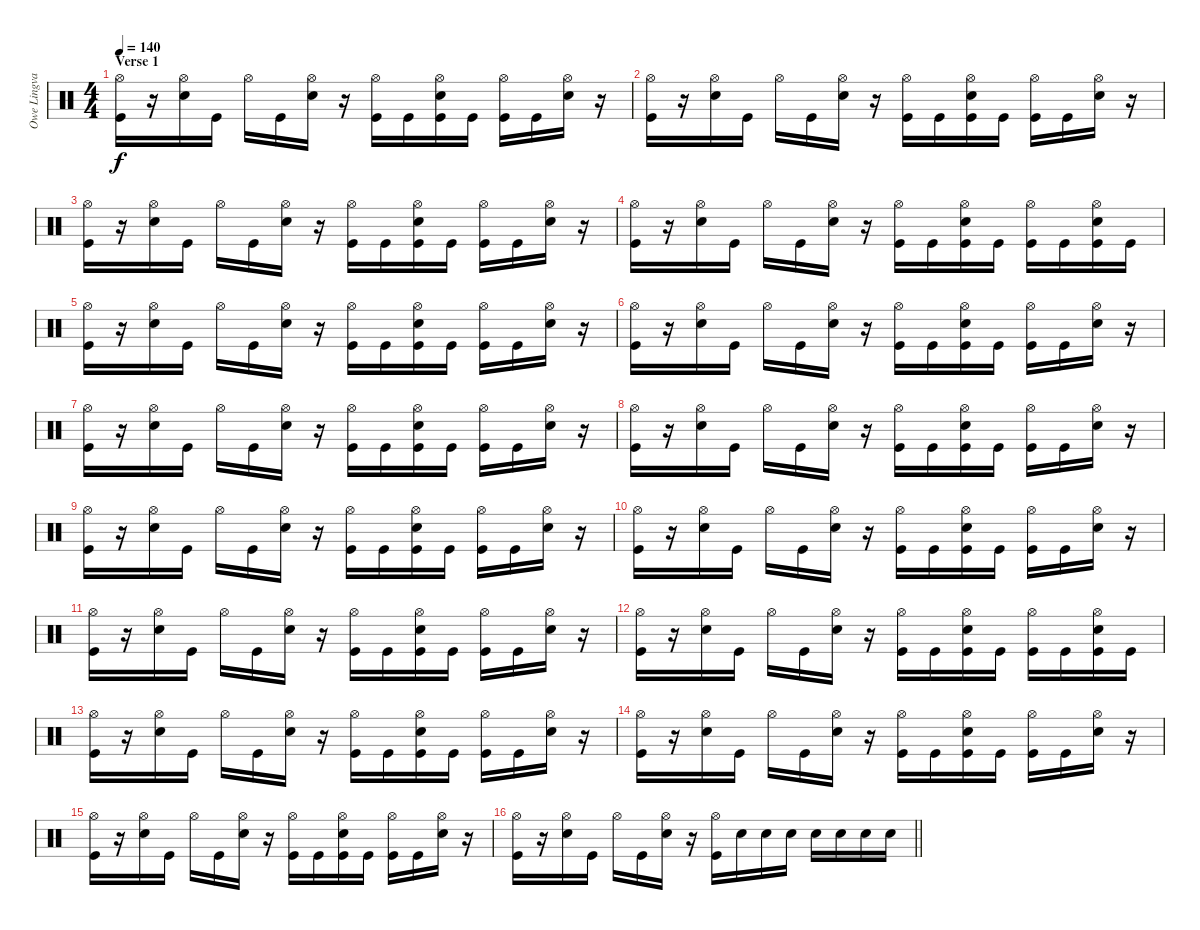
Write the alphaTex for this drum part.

\track ("Owe Lingvall" "Owe Lingva") {instrument percussion}
\staff {score}
\articulation defaults
\ts (4 4)
\section ("" "Verse 1")
\tempo 140
\clef neutral
\ks c
("Hi-Hat (open)" "Kick (hit)").16{dy f} r.16 ("Hi-Hat (open)" "Snare (hit) 2").16 "Kick (hit)".16 "Hi-Hat (open)".16 "Kick (hit)".16 ("Hi-Hat (open)" "Snare (hit) 2").16 r.16 ("Hi-Hat (open)" "Kick (hit)").16 "Kick (hit)".16 ("Hi-Hat (open)" "Snare (hit) 2" "Kick (hit)").16 "Kick (hit)".16 ("Kick (hit)" "Hi-Hat (open)").16 "Kick (hit)".16 ("Snare (hit) 2" "Hi-Hat (open)").16 r.16 |
("Hi-Hat (open)" "Kick (hit)").16 r.16 ("Hi-Hat (open)" "Snare (hit) 2").16 "Kick (hit)".16 "Hi-Hat (open)".16 "Kick (hit)".16 ("Hi-Hat (open)" "Snare (hit) 2").16 r.16 ("Hi-Hat (open)" "Kick (hit)").16 "Kick (hit)".16 ("Hi-Hat (open)" "Snare (hit) 2" "Kick (hit)").16 "Kick (hit)".16 ("Kick (hit)" "Hi-Hat (open)").16 "Kick (hit)".16 ("Snare (hit) 2" "Hi-Hat (open)").16 r.16 |
("Hi-Hat (open)" "Kick (hit)").16 r.16 ("Hi-Hat (open)" "Snare (hit) 2").16 "Kick (hit)".16 "Hi-Hat (open)".16 "Kick (hit)".16 ("Hi-Hat (open)" "Snare (hit) 2").16 r.16 ("Hi-Hat (open)" "Kick (hit)").16 "Kick (hit)".16 ("Hi-Hat (open)" "Snare (hit) 2" "Kick (hit)").16 "Kick (hit)".16 ("Kick (hit)" "Hi-Hat (open)").16 "Kick (hit)".16 ("Snare (hit) 2" "Hi-Hat (open)").16 r.16 |
("Hi-Hat (open)" "Kick (hit)").16 r.16 ("Hi-Hat (open)" "Snare (hit) 2").16 "Kick (hit)".16 "Hi-Hat (open)".16 "Kick (hit)".16 ("Hi-Hat (open)" "Snare (hit) 2").16 r.16 ("Hi-Hat (open)" "Kick (hit)").16 "Kick (hit)".16 ("Hi-Hat (open)" "Snare (hit) 2" "Kick (hit)").16 "Kick (hit)".16 ("Kick (hit)" "Hi-Hat (open)").16 "Kick (hit)".16 ("Snare (hit) 2" "Kick (hit)" "Hi-Hat (open)").16 "Kick (hit)".16 |
("Hi-Hat (open)" "Kick (hit)").16 r.16 ("Hi-Hat (open)" "Snare (hit) 2").16 "Kick (hit)".16 "Hi-Hat (open)".16 "Kick (hit)".16 ("Hi-Hat (open)" "Snare (hit) 2").16 r.16 ("Hi-Hat (open)" "Kick (hit)").16 "Kick (hit)".16 ("Hi-Hat (open)" "Snare (hit) 2" "Kick (hit)").16 "Kick (hit)".16 ("Kick (hit)" "Hi-Hat (open)").16 "Kick (hit)".16 ("Snare (hit) 2" "Hi-Hat (open)").16 r.16 |
("Hi-Hat (open)" "Kick (hit)").16 r.16 ("Hi-Hat (open)" "Snare (hit) 2").16 "Kick (hit)".16 "Hi-Hat (open)".16 "Kick (hit)".16 ("Hi-Hat (open)" "Snare (hit) 2").16 r.16 ("Hi-Hat (open)" "Kick (hit)").16 "Kick (hit)".16 ("Hi-Hat (open)" "Snare (hit) 2" "Kick (hit)").16 "Kick (hit)".16 ("Kick (hit)" "Hi-Hat (open)").16 "Kick (hit)".16 ("Snare (hit) 2" "Hi-Hat (open)").16 r.16 |
("Hi-Hat (open)" "Kick (hit)").16 r.16 ("Hi-Hat (open)" "Snare (hit) 2").16 "Kick (hit)".16 "Hi-Hat (open)".16 "Kick (hit)".16 ("Hi-Hat (open)" "Snare (hit) 2").16 r.16 ("Hi-Hat (open)" "Kick (hit)").16 "Kick (hit)".16 ("Hi-Hat (open)" "Snare (hit) 2" "Kick (hit)").16 "Kick (hit)".16 ("Kick (hit)" "Hi-Hat (open)").16 "Kick (hit)".16 ("Snare (hit) 2" "Hi-Hat (open)").16 r.16 |
("Hi-Hat (open)" "Kick (hit)").16 r.16 ("Hi-Hat (open)" "Snare (hit) 2").16 "Kick (hit)".16 "Hi-Hat (open)".16 "Kick (hit)".16 ("Hi-Hat (open)" "Snare (hit) 2").16 r.16 ("Hi-Hat (open)" "Kick (hit)").16 "Kick (hit)".16 ("Hi-Hat (open)" "Snare (hit) 2" "Kick (hit)").16 "Kick (hit)".16 ("Kick (hit)" "Hi-Hat (open)").16 "Kick (hit)".16 ("Snare (hit) 2" "Hi-Hat (open)").16 r.16 |
("Hi-Hat (open)" "Kick (hit)").16 r.16 ("Hi-Hat (open)" "Snare (hit) 2").16 "Kick (hit)".16 "Hi-Hat (open)".16 "Kick (hit)".16 ("Hi-Hat (open)" "Snare (hit) 2").16 r.16 ("Hi-Hat (open)" "Kick (hit)").16 "Kick (hit)".16 ("Hi-Hat (open)" "Snare (hit) 2" "Kick (hit)").16 "Kick (hit)".16 ("Kick (hit)" "Hi-Hat (open)").16 "Kick (hit)".16 ("Snare (hit) 2" "Hi-Hat (open)").16 r.16 |
("Hi-Hat (open)" "Kick (hit)").16 r.16 ("Hi-Hat (open)" "Snare (hit) 2").16 "Kick (hit)".16 "Hi-Hat (open)".16 "Kick (hit)".16 ("Hi-Hat (open)" "Snare (hit) 2").16 r.16 ("Hi-Hat (open)" "Kick (hit)").16 "Kick (hit)".16 ("Hi-Hat (open)" "Snare (hit) 2" "Kick (hit)").16 "Kick (hit)".16 ("Kick (hit)" "Hi-Hat (open)").16 "Kick (hit)".16 ("Snare (hit) 2" "Hi-Hat (open)").16 r.16 |
("Hi-Hat (open)" "Kick (hit)").16 r.16 ("Hi-Hat (open)" "Snare (hit) 2").16 "Kick (hit)".16 "Hi-Hat (open)".16 "Kick (hit)".16 ("Hi-Hat (open)" "Snare (hit) 2").16 r.16 ("Hi-Hat (open)" "Kick (hit)").16 "Kick (hit)".16 ("Hi-Hat (open)" "Snare (hit) 2" "Kick (hit)").16 "Kick (hit)".16 ("Kick (hit)" "Hi-Hat (open)").16 "Kick (hit)".16 ("Snare (hit) 2" "Hi-Hat (open)").16 r.16 |
("Hi-Hat (open)" "Kick (hit)").16 r.16 ("Hi-Hat (open)" "Snare (hit) 2").16 "Kick (hit)".16 "Hi-Hat (open)".16 "Kick (hit)".16 ("Hi-Hat (open)" "Snare (hit) 2").16 r.16 ("Hi-Hat (open)" "Kick (hit)").16 "Kick (hit)".16 ("Hi-Hat (open)" "Snare (hit) 2" "Kick (hit)").16 "Kick (hit)".16 ("Kick (hit)" "Hi-Hat (open)").16 "Kick (hit)".16 ("Snare (hit) 2" "Kick (hit)" "Hi-Hat (open)").16 "Kick (hit)".16 |
("Hi-Hat (open)" "Kick (hit)").16 r.16 ("Hi-Hat (open)" "Snare (hit) 2").16 "Kick (hit)".16 "Hi-Hat (open)".16 "Kick (hit)".16 ("Hi-Hat (open)" "Snare (hit) 2").16 r.16 ("Hi-Hat (open)" "Kick (hit)").16 "Kick (hit)".16 ("Hi-Hat (open)" "Snare (hit) 2" "Kick (hit)").16 "Kick (hit)".16 ("Kick (hit)" "Hi-Hat (open)").16 "Kick (hit)".16 ("Snare (hit) 2" "Hi-Hat (open)").16 r.16 |
("Hi-Hat (open)" "Kick (hit)").16 r.16 ("Hi-Hat (open)" "Snare (hit) 2").16 "Kick (hit)".16 "Hi-Hat (open)".16 "Kick (hit)".16 ("Hi-Hat (open)" "Snare (hit) 2").16 r.16 ("Hi-Hat (open)" "Kick (hit)").16 "Kick (hit)".16 ("Hi-Hat (open)" "Snare (hit) 2" "Kick (hit)").16 "Kick (hit)".16 ("Kick (hit)" "Hi-Hat (open)").16 "Kick (hit)".16 ("Snare (hit) 2" "Hi-Hat (open)").16 r.16 |
("Hi-Hat (open)" "Kick (hit)").16 r.16 ("Hi-Hat (open)" "Snare (hit) 2").16 "Kick (hit)".16 "Hi-Hat (open)".16 "Kick (hit)".16 ("Hi-Hat (open)" "Snare (hit) 2").16 r.16 ("Hi-Hat (open)" "Kick (hit)").16 "Kick (hit)".16 ("Hi-Hat (open)" "Snare (hit) 2" "Kick (hit)").16 "Kick (hit)".16 ("Kick (hit)" "Hi-Hat (open)").16 "Kick (hit)".16 ("Snare (hit) 2" "Hi-Hat (open)").16 r.16 |
\barLineRight lightlight
("Hi-Hat (open)" "Kick (hit)").16 r.16 ("Hi-Hat (open)" "Snare (hit) 2").16 "Kick (hit)".16 "Hi-Hat (open)".16 "Kick (hit)".16 ("Hi-Hat (open)" "Snare (hit) 2").16 r.16 ("Hi-Hat (open)" "Kick (hit)").16 "Snare (hit) 2".16 "Snare (hit) 2".16 "Snare (hit) 2".16 "Snare (hit) 2".16 "Snare (hit) 2".16 "Snare (hit) 2".16 "Snare (hit) 2".16
